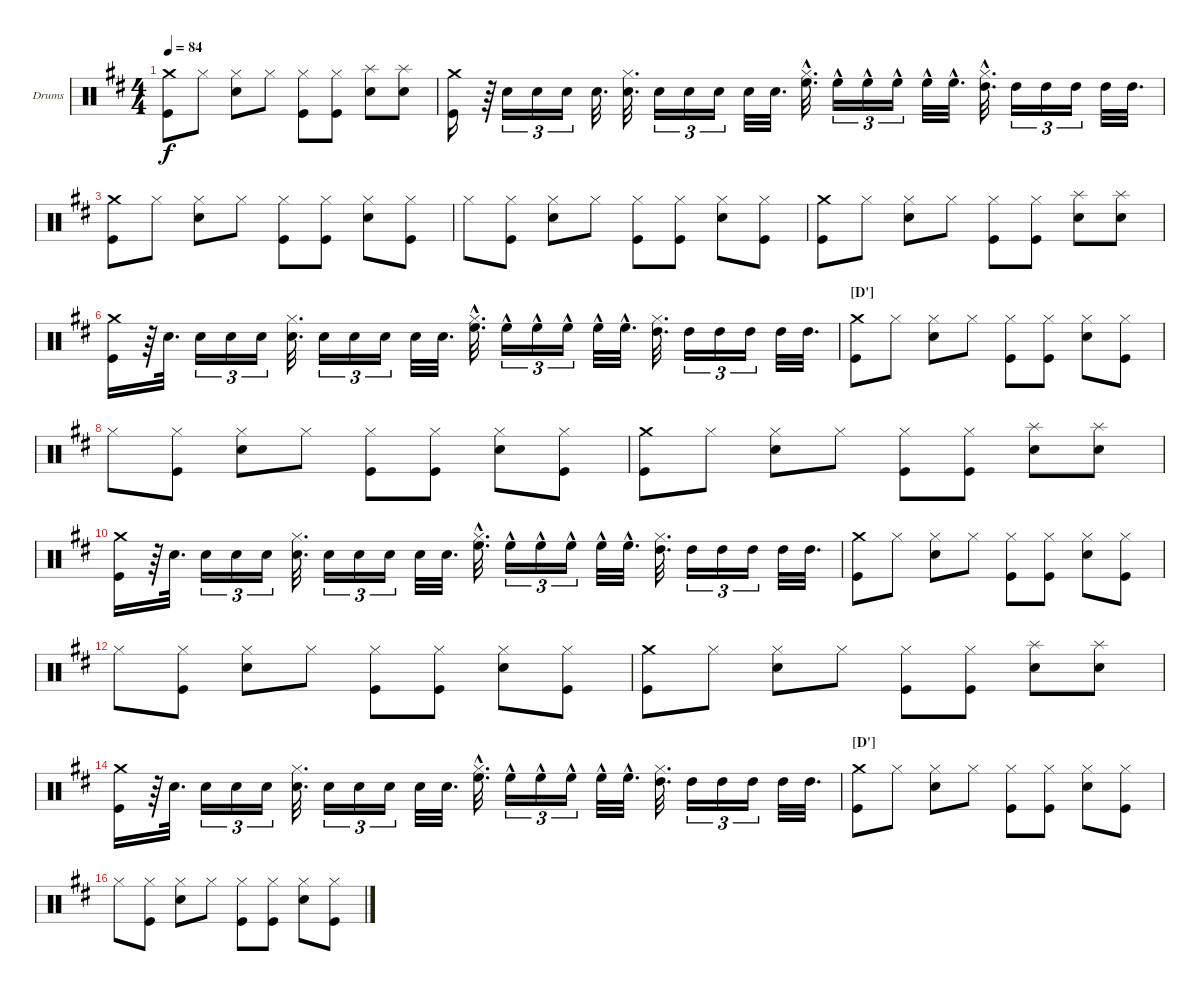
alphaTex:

\bracketExtendMode nobrackets
\firstSystemTrackNameOrientation horizontal
\otherSystemsTrackNameOrientation horizontal
\defaultBarNumberDisplay FirstOfSystem
\track ("Drumkit" "Drums") {instrument percussion}
\staff {score}
\articulation defaults
\ts (4 4)
\tempo 84
\clef neutral
\ks d
("Kick (hit)" "Crash medium (hit)").8{dy f} "Hi-Hat (closed)".8 ("Snare (hit) 2" "Hi-Hat (closed)").8 "Hi-Hat (closed)".8 ("Kick (hit)" "Hi-Hat (closed)").8 ("Kick (hit)" "Hi-Hat (closed)").8 ("Snare (hit) 2" "Splash (hit)").8 ("Snare (hit) 2" "Splash (hit)").8 |
("Kick (hit)" "Crash medium (hit)").16 r.64 "Snare (hit) 2".16{tu (3 2)} "Snare (hit) 2".16{tu (3 2)} "Snare (hit) 2".16{tu (3 2)} "Snare (hit) 2".32{d} ("Snare (hit) 2" "Hi-Hat (closed)").32{d} "Snare (hit) 2".16{tu (3 2)} "Snare (hit) 2".16{tu (3 2)} "Snare (hit) 2".16{tu (3 2)} "Snare (hit) 2".32 "Snare (hit) 2".32{d} ("High Floor Tom (hit)"{hac} "Hi-Hat (closed)"{hac}).32{d} "High Floor Tom (hit)"{hac}.16{tu (3 2)} "High Floor Tom (hit)"{hac}.16{tu (3 2)} "High Floor Tom (hit)"{hac}.16{tu (3 2)} "High Floor Tom (hit)"{hac}.32 "High Floor Tom (hit)"{hac}.32{d} ("Hi-Hat (closed)"{hac} "High Tom (hit)"{hac}).32{d} "High Tom (hit)".16{tu (3 2)} "High Tom (hit)".16{tu (3 2)} "High Tom (hit)".16{tu (3 2)} "High Tom (hit)".32 "High Tom (hit)".32{d} |
("Kick (hit)" "Crash medium (hit)").8 "Hi-Hat (closed)".8 ("Snare (hit) 2" "Hi-Hat (closed)").8 "Hi-Hat (closed)".8 ("Kick (hit)" "Hi-Hat (closed)").8 ("Kick (hit)" "Hi-Hat (closed)").8 ("Snare (hit) 2" "Hi-Hat (closed)").8 ("Kick (hit)" "Hi-Hat (closed)").8 |
"Hi-Hat (closed)".8 ("Kick (hit)" "Hi-Hat (closed)").8 ("Snare (hit) 2" "Hi-Hat (closed)").8 "Hi-Hat (closed)".8 ("Kick (hit)" "Hi-Hat (closed)").8 ("Kick (hit)" "Hi-Hat (closed)").8 ("Snare (hit) 2" "Hi-Hat (closed)").8 ("Kick (hit)" "Hi-Hat (closed)").8 |
("Kick (hit)" "Crash medium (hit)").8 "Hi-Hat (closed)".8 ("Snare (hit) 2" "Hi-Hat (closed)").8 "Hi-Hat (closed)".8 ("Kick (hit)" "Hi-Hat (closed)").8 ("Kick (hit)" "Hi-Hat (closed)").8 ("Snare (hit) 2" "Splash (hit)").8 ("Snare (hit) 2" "Splash (hit)").8 |
("Kick (hit)" "Crash medium (hit)").16 r.64 "Snare (hit) 2".32{d} "Snare (hit) 2".16{tu (3 2)} "Snare (hit) 2".16{tu (3 2)} "Snare (hit) 2".16{tu (3 2)} ("Snare (hit) 2" "Hi-Hat (closed)").32{d} "Snare (hit) 2".16{tu (3 2)} "Snare (hit) 2".16{tu (3 2)} "Snare (hit) 2".16{tu (3 2)} "Snare (hit) 2".32 "Snare (hit) 2".32{d} ("High Floor Tom (hit)"{hac} "Hi-Hat (closed)"{hac}).32{d} "High Floor Tom (hit)"{hac}.16{tu (3 2)} "High Floor Tom (hit)"{hac}.16{tu (3 2)} "High Floor Tom (hit)"{hac}.16{tu (3 2)} "High Floor Tom (hit)"{hac}.32 "High Floor Tom (hit)"{hac}.32{d} ("Hi-Hat (closed)" "High Tom (hit)").32{d} "High Tom (hit)".16{tu (3 2)} "High Tom (hit)".16{tu (3 2)} "High Tom (hit)".16{tu (3 2)} "High Tom (hit)".32 "High Tom (hit)".32{d} |
\section ("D'" "")
("Kick (hit)" "Crash medium (hit)").8 "Hi-Hat (closed)".8 ("Snare (hit) 2" "Hi-Hat (closed)").8 "Hi-Hat (closed)".8 ("Kick (hit)" "Hi-Hat (closed)").8 ("Kick (hit)" "Hi-Hat (closed)").8 ("Snare (hit) 2" "Hi-Hat (closed)").8 ("Kick (hit)" "Hi-Hat (closed)").8 |
"Hi-Hat (closed)".8 ("Kick (hit)" "Hi-Hat (closed)").8 ("Snare (hit) 2" "Hi-Hat (closed)").8 "Hi-Hat (closed)".8 ("Kick (hit)" "Hi-Hat (closed)").8 ("Kick (hit)" "Hi-Hat (closed)").8 ("Snare (hit) 2" "Hi-Hat (closed)").8 ("Kick (hit)" "Hi-Hat (closed)").8 |
("Kick (hit)" "Crash medium (hit)").8 "Hi-Hat (closed)".8 ("Snare (hit) 2" "Hi-Hat (closed)").8 "Hi-Hat (closed)".8 ("Kick (hit)" "Hi-Hat (closed)").8 ("Kick (hit)" "Hi-Hat (closed)").8 ("Snare (hit) 2" "Splash (hit)").8 ("Snare (hit) 2" "Splash (hit)").8 |
("Kick (hit)" "Crash medium (hit)").16 r.64 "Snare (hit) 2".32{d} "Snare (hit) 2".16{tu (3 2)} "Snare (hit) 2".16{tu (3 2)} "Snare (hit) 2".16{tu (3 2)} ("Snare (hit) 2" "Hi-Hat (closed)").32{d} "Snare (hit) 2".16{tu (3 2)} "Snare (hit) 2".16{tu (3 2)} "Snare (hit) 2".16{tu (3 2)} "Snare (hit) 2".32 "Snare (hit) 2".32{d} ("High Floor Tom (hit)"{hac} "Hi-Hat (closed)").32{d} "High Floor Tom (hit)"{hac}.16{tu (3 2)} "High Floor Tom (hit)"{hac}.16{tu (3 2)} "High Floor Tom (hit)"{hac}.16{tu (3 2)} "High Floor Tom (hit)"{hac}.32 "High Floor Tom (hit)"{hac}.32{d} ("Hi-Hat (closed)" "High Tom (hit)").32{d} "High Tom (hit)".16{tu (3 2)} "High Tom (hit)".16{tu (3 2)} "High Tom (hit)".16{tu (3 2)} "High Tom (hit)".32 "High Tom (hit)".32{d} |
("Kick (hit)" "Crash medium (hit)").8 "Hi-Hat (closed)".8 ("Snare (hit) 2" "Hi-Hat (closed)").8 "Hi-Hat (closed)".8 ("Kick (hit)" "Hi-Hat (closed)").8 ("Kick (hit)" "Hi-Hat (closed)").8 ("Snare (hit) 2" "Hi-Hat (closed)").8 ("Kick (hit)" "Hi-Hat (closed)").8 |
"Hi-Hat (closed)".8 ("Kick (hit)" "Hi-Hat (closed)").8 ("Snare (hit) 2" "Hi-Hat (closed)").8 "Hi-Hat (closed)".8 ("Kick (hit)" "Hi-Hat (closed)").8 ("Kick (hit)" "Hi-Hat (closed)").8 ("Snare (hit) 2" "Hi-Hat (closed)").8 ("Kick (hit)" "Hi-Hat (closed)").8 |
("Kick (hit)" "Crash medium (hit)").8 "Hi-Hat (closed)".8 ("Snare (hit) 2" "Hi-Hat (closed)").8 "Hi-Hat (closed)".8 ("Kick (hit)" "Hi-Hat (closed)").8 ("Kick (hit)" "Hi-Hat (closed)").8 ("Snare (hit) 2" "Splash (hit)").8 ("Snare (hit) 2" "Splash (hit)").8 |
("Kick (hit)" "Crash medium (hit)").16 r.64 "Snare (hit) 2".32{d} "Snare (hit) 2".16{tu (3 2)} "Snare (hit) 2".16{tu (3 2)} "Snare (hit) 2".16{tu (3 2)} ("Snare (hit) 2" "Hi-Hat (closed)").32{d} "Snare (hit) 2".16{tu (3 2)} "Snare (hit) 2".16{tu (3 2)} "Snare (hit) 2".16{tu (3 2)} "Snare (hit) 2".32 "Snare (hit) 2".32{d} ("High Floor Tom (hit)"{hac} "Hi-Hat (closed)"{hac}).32{d} "High Floor Tom (hit)"{hac}.16{tu (3 2)} "High Floor Tom (hit)"{hac}.16{tu (3 2)} "High Floor Tom (hit)"{hac}.16{tu (3 2)} "High Floor Tom (hit)"{hac}.32 "High Floor Tom (hit)"{hac}.32{d} ("Hi-Hat (closed)" "High Tom (hit)").32{d} "High Tom (hit)".16{tu (3 2)} "High Tom (hit)".16{tu (3 2)} "High Tom (hit)".16{tu (3 2)} "High Tom (hit)".32 "High Tom (hit)".32{d} |
\section ("D'" "")
("Kick (hit)" "Crash medium (hit)").8 "Hi-Hat (closed)".8 ("Snare (hit) 2" "Hi-Hat (closed)").8 "Hi-Hat (closed)".8 ("Kick (hit)" "Hi-Hat (closed)").8 ("Kick (hit)" "Hi-Hat (closed)").8 ("Snare (hit) 2" "Hi-Hat (closed)").8 ("Kick (hit)" "Hi-Hat (closed)").8 |
"Hi-Hat (closed)".8 ("Kick (hit)" "Hi-Hat (closed)").8 ("Snare (hit) 2" "Hi-Hat (closed)").8 "Hi-Hat (closed)".8 ("Kick (hit)" "Hi-Hat (closed)").8 ("Kick (hit)" "Hi-Hat (closed)").8 ("Snare (hit) 2" "Hi-Hat (closed)").8 ("Kick (hit)" "Hi-Hat (closed)").8
